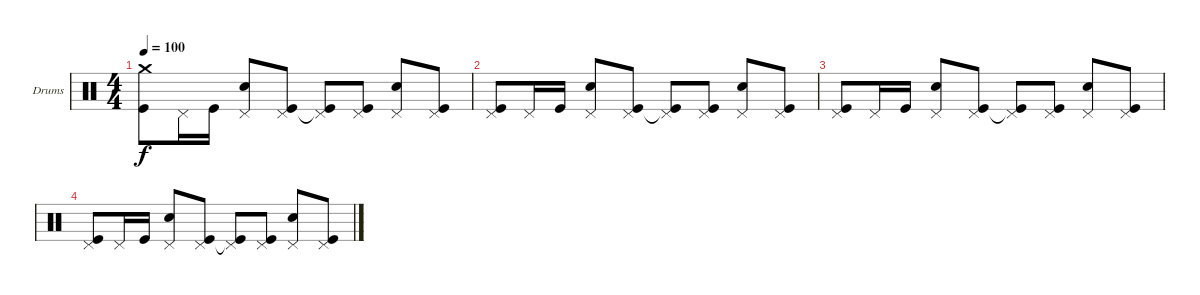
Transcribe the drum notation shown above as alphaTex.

\defaultSystemsLayout 4
\bracketExtendMode groupsimilarinstruments
\firstSystemTrackNameOrientation horizontal
\otherSystemsTrackNameOrientation horizontal
\track ("Drumkit" "Drums") {instrument percussion}
\staff {score}
\articulation defaults
\ts (4 4)
\tempo 100
\clef neutral
\ks c
("Crash medium (hit)" "Kick (hit)").8{dy f} "Pedal Hi-Hat (hit)".16 "Kick (hit)".16 ("Pedal Hi-Hat (hit)" "Snare (hit) 2").8 ("Pedal Hi-Hat (hit)" "Kick (hit)").8 ("Pedal Hi-Hat (hit)" "Kick (hit)"{t}).8 ("Pedal Hi-Hat (hit)" "Kick (hit)").8 ("Pedal Hi-Hat (hit)" "Snare (hit) 2").8 ("Pedal Hi-Hat (hit)" "Kick (hit)").8 |
("Pedal Hi-Hat (hit)" "Kick (hit)").8 "Pedal Hi-Hat (hit)".16 "Kick (hit)".16 ("Pedal Hi-Hat (hit)" "Snare (hit) 2").8 ("Pedal Hi-Hat (hit)" "Kick (hit)").8 ("Pedal Hi-Hat (hit)" "Kick (hit)"{t}).8 ("Pedal Hi-Hat (hit)" "Kick (hit)").8 ("Pedal Hi-Hat (hit)" "Snare (hit) 2").8 ("Pedal Hi-Hat (hit)" "Kick (hit)").8 |
("Pedal Hi-Hat (hit)" "Kick (hit)").8 "Pedal Hi-Hat (hit)".16 "Kick (hit)".16 ("Pedal Hi-Hat (hit)" "Snare (hit) 2").8 ("Pedal Hi-Hat (hit)" "Kick (hit)").8 ("Pedal Hi-Hat (hit)" "Kick (hit)"{t}).8 ("Pedal Hi-Hat (hit)" "Kick (hit)").8 ("Pedal Hi-Hat (hit)" "Snare (hit) 2").8 ("Pedal Hi-Hat (hit)" "Kick (hit)").8 |
("Pedal Hi-Hat (hit)" "Kick (hit)").8 "Pedal Hi-Hat (hit)".16 "Kick (hit)".16 ("Pedal Hi-Hat (hit)" "Snare (hit) 2").8 ("Pedal Hi-Hat (hit)" "Kick (hit)").8 ("Pedal Hi-Hat (hit)" "Kick (hit)"{t}).8 ("Pedal Hi-Hat (hit)" "Kick (hit)").8 ("Pedal Hi-Hat (hit)" "Snare (hit) 2").8 ("Pedal Hi-Hat (hit)" "Kick (hit)").8
